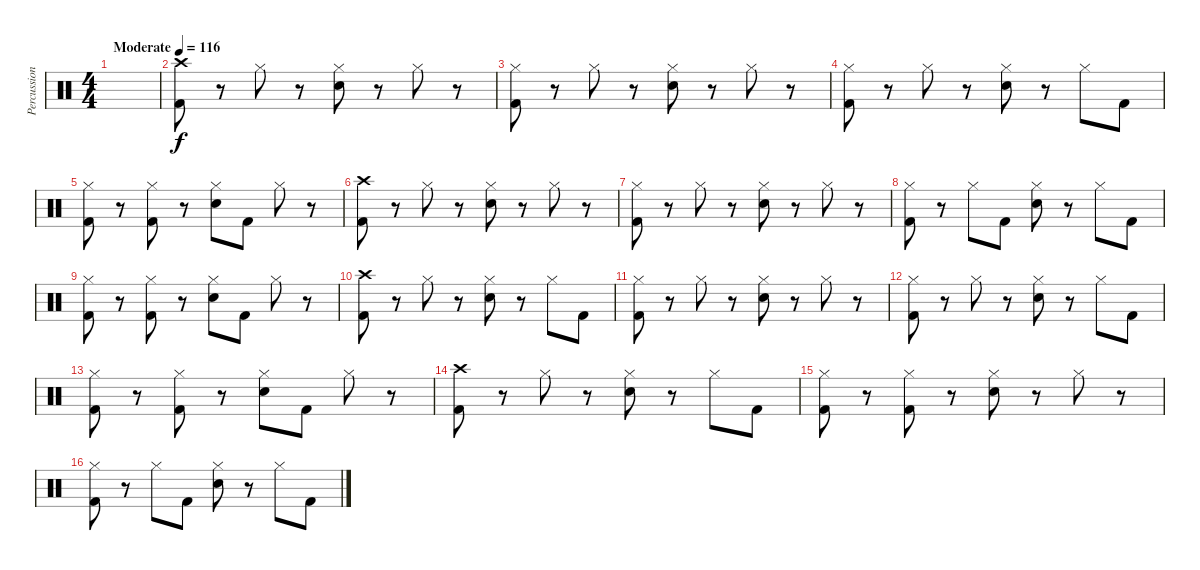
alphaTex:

\track ("Percussion" "Percussion") {instrument percussion}
\staff {score}
\articulation defaults
\ts (4 4)
\tempo (116 "Moderate")
\clef neutral
\ks c
|
("Crash high (hit)" "Kick (hit) 2").8 r.8 "Hi-Hat (closed)".8 r.8 ("Hi-Hat (closed)" "Snare (hit) 2").8 r.8 "Hi-Hat (closed)".8 r.8 |
("Hi-Hat (closed)" "Kick (hit) 2").8 r.8 "Hi-Hat (closed)".8 r.8 ("Hi-Hat (closed)" "Snare (hit) 2").8 r.8 "Hi-Hat (closed)".8 r.8 |
("Hi-Hat (closed)" "Kick (hit) 2").8 r.8 "Hi-Hat (closed)".8 r.8 ("Hi-Hat (closed)" "Snare (hit) 2").8 r.8 "Hi-Hat (closed)".8 "Kick (hit) 2".8 |
("Hi-Hat (closed)" "Kick (hit) 2").8 r.8 ("Hi-Hat (closed)" "Kick (hit) 2").8 r.8 ("Hi-Hat (closed)" "Snare (hit) 2").8 "Kick (hit) 2".8 "Hi-Hat (closed)".8 r.8 |
("Crash high (hit)" "Kick (hit) 2").8 r.8 "Hi-Hat (closed)".8 r.8 ("Hi-Hat (closed)" "Snare (hit) 2").8 r.8 "Hi-Hat (closed)".8 r.8 |
("Hi-Hat (closed)" "Kick (hit) 2").8 r.8 "Hi-Hat (closed)".8 r.8 ("Hi-Hat (closed)" "Snare (hit) 2").8 r.8 "Hi-Hat (closed)".8 r.8 |
("Hi-Hat (closed)" "Kick (hit) 2").8 r.8 "Hi-Hat (closed)".8 "Kick (hit) 2".8 ("Hi-Hat (closed)" "Snare (hit) 2").8 r.8 "Hi-Hat (closed)".8 "Kick (hit) 2".8 |
("Hi-Hat (closed)" "Kick (hit) 2").8 r.8 ("Hi-Hat (closed)" "Kick (hit) 2").8 r.8 ("Hi-Hat (closed)" "Snare (hit) 2").8 "Kick (hit) 2".8 "Hi-Hat (closed)".8 r.8 |
("Crash high (hit)" "Kick (hit) 2").8 r.8 "Hi-Hat (closed)".8 r.8 ("Hi-Hat (closed)" "Snare (hit) 2").8 r.8 "Hi-Hat (closed)".8 "Kick (hit) 2".8 |
("Hi-Hat (closed)" "Kick (hit) 2").8 r.8 "Hi-Hat (closed)".8 r.8 ("Hi-Hat (closed)" "Snare (hit) 2").8 r.8 "Hi-Hat (closed)".8 r.8 |
("Hi-Hat (closed)" "Kick (hit) 2").8 r.8 "Hi-Hat (closed)".8 r.8 ("Hi-Hat (closed)" "Snare (hit) 2").8 r.8 "Hi-Hat (closed)".8 "Kick (hit) 2".8 |
("Hi-Hat (closed)" "Kick (hit) 2").8 r.8 ("Hi-Hat (closed)" "Kick (hit) 2").8 r.8 ("Hi-Hat (closed)" "Snare (hit) 2").8 "Kick (hit) 2".8 "Hi-Hat (closed)".8 r.8 |
("Crash high (hit)" "Kick (hit) 2").8 r.8 "Hi-Hat (closed)".8 r.8 ("Hi-Hat (closed)" "Snare (hit) 2").8 r.8 "Hi-Hat (closed)".8 "Kick (hit) 2".8 |
("Hi-Hat (closed)" "Kick (hit) 2").8 r.8 ("Hi-Hat (closed)" "Kick (hit) 2").8 r.8 ("Hi-Hat (closed)" "Snare (hit) 2").8 r.8 "Hi-Hat (closed)".8 r.8 |
("Hi-Hat (closed)" "Kick (hit) 2").8 r.8 "Hi-Hat (closed)".8 "Kick (hit) 2".8 ("Hi-Hat (closed)" "Snare (hit) 2").8 r.8 "Hi-Hat (closed)".8 "Kick (hit) 2".8
